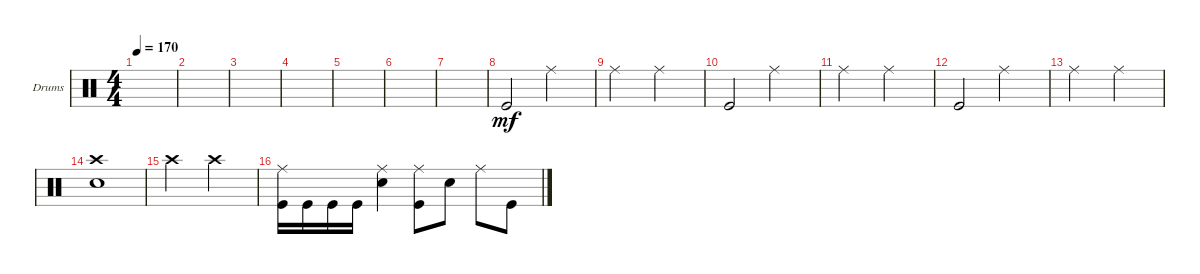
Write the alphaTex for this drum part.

\bracketExtendMode groupsimilarinstruments
\firstSystemTrackNameOrientation horizontal
\otherSystemsTrackNameOrientation horizontal
\track ("Emile Bardou" "Drums") {instrument percussion}
\staff {score}
\articulation defaults
\ts (4 4)
\tempo 170
\clef neutral
\ks c
|
|
|
|
|
|
|
"Kick (hit)".2{dy mf} "Ride (middle)".2 |
"Ride (middle)".2 "Ride (middle)".2 |
"Kick (hit)".2 "Ride (middle)".2 |
"Ride (middle)".2 "Ride (middle)".2 |
"Kick (hit)".2 "Ride (middle)".2 |
"Ride (middle)".2 "Ride (middle)".2 |
("Snare (hit) 2" "Crash high (hit)").1 |
"Crash high (hit)".2 "Crash high (hit)".2 |
("Kick (hit)" "Ride (middle)").16 "Kick (hit)".16 "Kick (hit)".16 "Kick (hit)".16 ("Ride (middle)" "Snare (hit) 2").4 ("Kick (hit)" "Ride (middle)").8 "Snare (hit) 2".8 "Ride (middle)".8 "Kick (hit)".8
